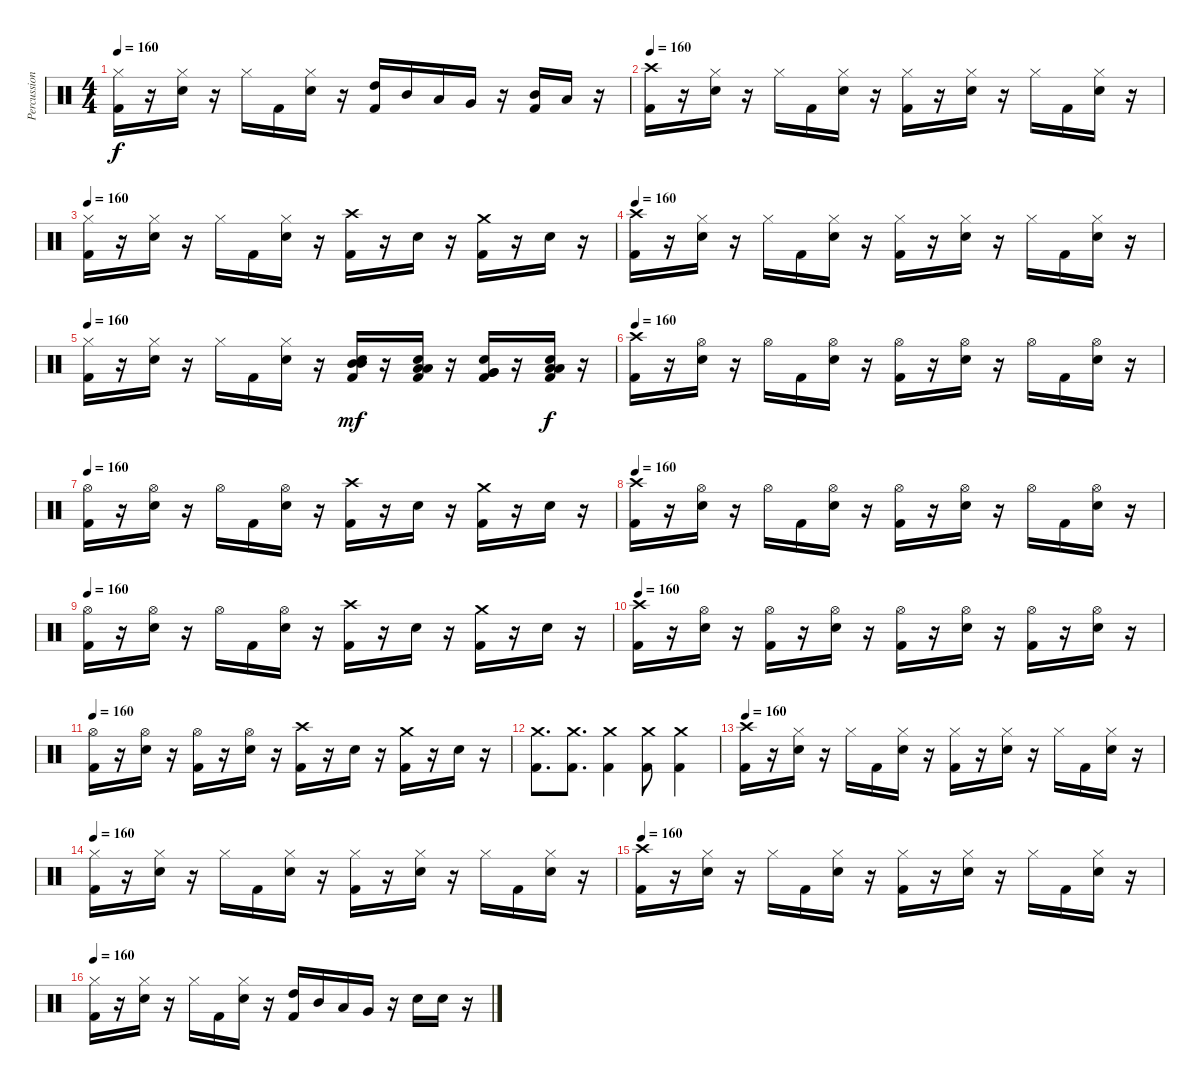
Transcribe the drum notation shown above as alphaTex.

\track ("Percussion" "Percussion") {instrument percussion}
\staff {score}
\articulation defaults
\ts (4 4)
\tempo 160
\clef neutral
\ks c
("Hi-Hat (closed)" "Kick (hit) 2").16{dy f} r.16 ("Hi-Hat (closed)" "Snare (hit) 2").16 r.16 "Hi-Hat (closed)".16 "Kick (hit) 2".16 ("Hi-Hat (closed)" "Snare (hit) 2").16 r.16 ("High Tom (hit)" "Kick (hit) 2").16 "Mid Tom (hit)".16 "Low Tom (hit)".16 "Very Low Tom (hit)".16 r.16 ("Mid Tom (hit)" "Kick (hit) 2").16 "Low Tom (hit)".16 r.16 |
\tempo 160
("Crash high (hit)" "Kick (hit) 2").16 r.16 ("Hi-Hat (closed)" "Snare (hit) 2").16 r.16 "Hi-Hat (closed)".16 "Kick (hit) 2".16 ("Hi-Hat (closed)" "Snare (hit) 2").16 r.16 ("Hi-Hat (closed)" "Kick (hit) 2").16 r.16 ("Hi-Hat (closed)" "Snare (hit) 2").16 r.16 "Hi-Hat (closed)".16 "Kick (hit) 2".16 ("Hi-Hat (closed)" "Snare (hit) 2").16 r.16 |
\tempo 160
("Hi-Hat (closed)" "Kick (hit) 2").16 r.16 ("Hi-Hat (closed)" "Snare (hit) 2").16 r.16 "Hi-Hat (closed)".16 "Kick (hit) 2".16 ("Hi-Hat (closed)" "Snare (hit) 2").16 r.16 ("Crash high (hit)" "Kick (hit) 2").16 r.16 "Snare (hit) 2".16 r.16 ("Crash medium (hit)" "Kick (hit) 2").16 r.16 "Snare (hit) 2".16 r.16 |
\tempo 160
("Crash high (hit)" "Kick (hit) 2").16 r.16 ("Hi-Hat (closed)" "Snare (hit) 2").16 r.16 "Hi-Hat (closed)".16 "Kick (hit) 2".16 ("Hi-Hat (closed)" "Snare (hit) 2").16 r.16 ("Hi-Hat (closed)" "Kick (hit) 2").16 r.16 ("Hi-Hat (closed)" "Snare (hit) 2").16 r.16 "Hi-Hat (closed)".16 "Kick (hit) 2".16 ("Hi-Hat (closed)" "Snare (hit) 2").16 r.16 |
\tempo 160
("Hi-Hat (closed)" "Kick (hit) 2").16 r.16 ("Hi-Hat (closed)" "Snare (hit) 2").16 r.16 "Hi-Hat (closed)".16 "Kick (hit) 2".16 ("Hi-Hat (closed)" "Snare (hit) 2").16 r.16 ("Mid Tom (hit)" "Snare (hit) 2" "Mid Tom (hit)" "Kick (hit) 2").16{dy mf} r.16 ("Low Tom (hit)" "Snare (hit) 2" "Low Tom (hit)" "Kick (hit) 2").16 r.16 ("Very Low Tom (hit)" "Snare (hit) 2" "Very Low Tom (hit)" "Kick (hit) 2").16 r.16 ("Low Floor Tom (hit)" "Snare (hit) 2" "Low Floor Tom (hit)" "Kick (hit) 2").16{dy f} r.16 |
\tempo 160
("Crash high (hit)" "Kick (hit) 2").16 r.16 ("Hi-Hat (open)" "Snare (hit) 2").16 r.16 "Hi-Hat (open)".16 "Kick (hit) 2".16 ("Hi-Hat (open)" "Snare (hit) 2").16 r.16 ("Hi-Hat (open)" "Kick (hit) 2").16 r.16 ("Hi-Hat (open)" "Snare (hit) 2").16 r.16 "Hi-Hat (open)".16 "Kick (hit) 2".16 ("Hi-Hat (open)" "Snare (hit) 2").16 r.16 |
\tempo 160
("Hi-Hat (open)" "Kick (hit) 2").16 r.16 ("Hi-Hat (open)" "Snare (hit) 2").16 r.16 "Hi-Hat (open)".16 "Kick (hit) 2".16 ("Hi-Hat (open)" "Snare (hit) 2").16 r.16 ("Crash high (hit)" "Kick (hit) 2").16 r.16 "Snare (hit) 2".16 r.16 ("Crash medium (hit)" "Kick (hit) 2").16 r.16 "Snare (hit) 2".16 r.16 |
\tempo 160
("Crash high (hit)" "Kick (hit) 2").16 r.16 ("Hi-Hat (open)" "Snare (hit) 2").16 r.16 "Hi-Hat (open)".16 "Kick (hit) 2".16 ("Hi-Hat (open)" "Snare (hit) 2").16 r.16 ("Hi-Hat (open)" "Kick (hit) 2").16 r.16 ("Hi-Hat (open)" "Snare (hit) 2").16 r.16 "Hi-Hat (open)".16 "Kick (hit) 2".16 ("Hi-Hat (open)" "Snare (hit) 2").16 r.16 |
\tempo 160
("Hi-Hat (open)" "Kick (hit) 2").16 r.16 ("Hi-Hat (open)" "Snare (hit) 2").16 r.16 "Hi-Hat (open)".16 "Kick (hit) 2".16 ("Hi-Hat (open)" "Snare (hit) 2").16 r.16 ("Crash high (hit)" "Kick (hit) 2").16 r.16 "Snare (hit) 2".16 r.16 ("Crash medium (hit)" "Kick (hit) 2").16 r.16 "Snare (hit) 2".16 r.16 |
\tempo 160
("Crash high (hit)" "Kick (hit) 2").16 r.16 ("Hi-Hat (open)" "Snare (hit) 2").16 r.16 ("Hi-Hat (open)" "Kick (hit) 2").16 r.16 ("Hi-Hat (open)" "Snare (hit) 2").16 r.16 ("Hi-Hat (open)" "Kick (hit) 2").16 r.16 ("Hi-Hat (open)" "Snare (hit) 2").16 r.16 ("Hi-Hat (open)" "Kick (hit) 2").16 r.16 ("Hi-Hat (open)" "Snare (hit) 2").16 r.16 |
\tempo 160
("Hi-Hat (open)" "Kick (hit) 2").16 r.16 ("Hi-Hat (open)" "Snare (hit) 2").16 r.16 ("Hi-Hat (open)" "Kick (hit) 2").16 r.16 ("Hi-Hat (open)" "Snare (hit) 2").16 r.16 ("Crash high (hit)" "Kick (hit) 2").16 r.16 "Snare (hit) 2".16 r.16 ("Crash medium (hit)" "Kick (hit) 2").16 r.16 "Snare (hit) 2".16 r.16 |
("Crash medium (hit)" "Kick (hit) 2").8{d} ("Crash medium (hit)" "Kick (hit) 2").8{d} ("Crash medium (hit)" "Kick (hit) 2").4 ("Crash medium (hit)" "Kick (hit) 2").8 ("Crash medium (hit)" "Kick (hit) 2").4 |
\tempo 160
("Crash high (hit)" "Kick (hit) 2").16 r.16 ("Hi-Hat (closed)" "Snare (hit) 2").16 r.16 "Hi-Hat (closed)".16 "Kick (hit) 2".16 ("Hi-Hat (closed)" "Snare (hit) 2").16 r.16 ("Hi-Hat (closed)" "Kick (hit) 2").16 r.16 ("Hi-Hat (closed)" "Snare (hit) 2").16 r.16 "Hi-Hat (closed)".16 "Kick (hit) 2".16 ("Hi-Hat (closed)" "Snare (hit) 2").16 r.16 |
\tempo 160
("Hi-Hat (closed)" "Kick (hit) 2").16 r.16 ("Hi-Hat (closed)" "Snare (hit) 2").16 r.16 "Hi-Hat (closed)".16 "Kick (hit) 2".16 ("Hi-Hat (closed)" "Snare (hit) 2").16 r.16 ("Hi-Hat (closed)" "Kick (hit) 2").16 r.16 ("Hi-Hat (closed)" "Snare (hit) 2").16 r.16 "Hi-Hat (closed)".16 "Kick (hit) 2".16 ("Hi-Hat (closed)" "Snare (hit) 2").16 r.16 |
\tempo 160
("Crash high (hit)" "Kick (hit) 2").16 r.16 ("Hi-Hat (closed)" "Snare (hit) 2").16 r.16 "Hi-Hat (closed)".16 "Kick (hit) 2".16 ("Hi-Hat (closed)" "Snare (hit) 2").16 r.16 ("Hi-Hat (closed)" "Kick (hit) 2").16 r.16 ("Hi-Hat (closed)" "Snare (hit) 2").16 r.16 "Hi-Hat (closed)".16 "Kick (hit) 2".16 ("Hi-Hat (closed)" "Snare (hit) 2").16 r.16 |
\tempo 160
("Hi-Hat (closed)" "Kick (hit) 2").16 r.16 ("Hi-Hat (closed)" "Snare (hit) 2").16 r.16 "Hi-Hat (closed)".16 "Kick (hit) 2".16 ("Hi-Hat (closed)" "Snare (hit) 2").16 r.16 ("High Tom (hit)" "Kick (hit) 2").16 "Mid Tom (hit)".16 "Low Tom (hit)".16 "Very Low Tom (hit)".16 r.16 "Snare (hit) 2".16 "Snare (hit) 2".16 r.16
